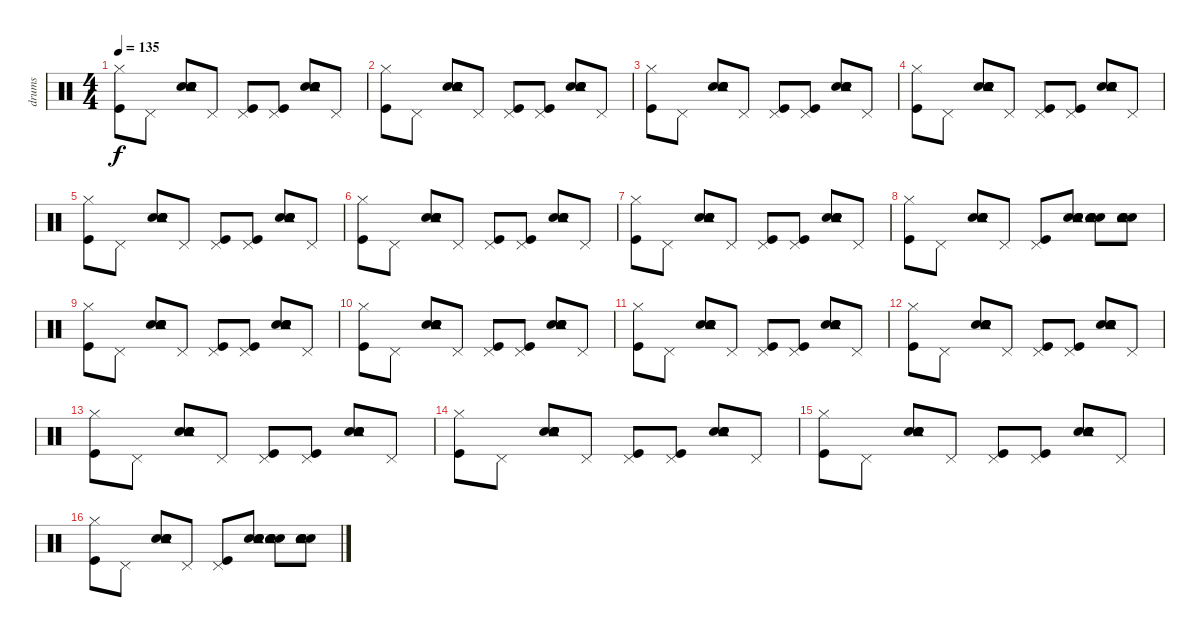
\track ("drums" "drums") {instrument percussion}
\staff {score}
\articulation defaults
\ts (4 4)
\tempo 135
\clef neutral
\ks c
("Kick (hit)" "Hi-Hat (closed)").8{dy f} "Pedal Hi-Hat (hit)".8 ("Snare (hit) 2" "Snare (hit) 2" "Electric Snare (hit)" "Electric Snare (hit)" "Tambourine (hit)").8 "Pedal Hi-Hat (hit)".8 ("Kick (hit)" "Pedal Hi-Hat (hit)").8 ("Kick (hit)" "Pedal Hi-Hat (hit)").8 ("Snare (hit) 2" "Snare (hit) 2" "Electric Snare (hit)" "Electric Snare (hit)" "Tambourine (hit)").8 "Pedal Hi-Hat (hit)".8 |
("Kick (hit)" "Hi-Hat (closed)").8 "Pedal Hi-Hat (hit)".8 ("Snare (hit) 2" "Snare (hit) 2" "Electric Snare (hit)" "Electric Snare (hit)" "Tambourine (hit)").8 "Pedal Hi-Hat (hit)".8 ("Kick (hit)" "Pedal Hi-Hat (hit)").8 ("Kick (hit)" "Pedal Hi-Hat (hit)").8 ("Snare (hit) 2" "Snare (hit) 2" "Electric Snare (hit)" "Electric Snare (hit)" "Tambourine (hit)").8 "Pedal Hi-Hat (hit)".8 |
("Kick (hit)" "Hi-Hat (closed)").8 "Pedal Hi-Hat (hit)".8 ("Snare (hit) 2" "Snare (hit) 2" "Electric Snare (hit)" "Electric Snare (hit)" "Tambourine (hit)").8 "Pedal Hi-Hat (hit)".8 ("Kick (hit)" "Pedal Hi-Hat (hit)").8 ("Kick (hit)" "Pedal Hi-Hat (hit)").8 ("Snare (hit) 2" "Snare (hit) 2" "Electric Snare (hit)" "Electric Snare (hit)" "Tambourine (hit)").8 "Pedal Hi-Hat (hit)".8 |
("Kick (hit)" "Hi-Hat (closed)").8 "Pedal Hi-Hat (hit)".8 ("Snare (hit) 2" "Snare (hit) 2" "Electric Snare (hit)" "Electric Snare (hit)" "Tambourine (hit)").8 "Pedal Hi-Hat (hit)".8 ("Kick (hit)" "Pedal Hi-Hat (hit)").8 ("Kick (hit)" "Pedal Hi-Hat (hit)").8 ("Snare (hit) 2" "Snare (hit) 2" "Electric Snare (hit)" "Electric Snare (hit)" "Tambourine (hit)").8 "Pedal Hi-Hat (hit)".8 |
("Kick (hit)" "Hi-Hat (closed)").8 "Pedal Hi-Hat (hit)".8 ("Snare (hit) 2" "Snare (hit) 2" "Electric Snare (hit)" "Electric Snare (hit)" "Tambourine (hit)").8 "Pedal Hi-Hat (hit)".8 ("Kick (hit)" "Pedal Hi-Hat (hit)").8 ("Kick (hit)" "Pedal Hi-Hat (hit)").8 ("Snare (hit) 2" "Snare (hit) 2" "Electric Snare (hit)" "Electric Snare (hit)" "Tambourine (hit)").8 "Pedal Hi-Hat (hit)".8 |
("Kick (hit)" "Hi-Hat (closed)").8 "Pedal Hi-Hat (hit)".8 ("Snare (hit) 2" "Snare (hit) 2" "Electric Snare (hit)" "Electric Snare (hit)" "Tambourine (hit)").8 "Pedal Hi-Hat (hit)".8 ("Kick (hit)" "Pedal Hi-Hat (hit)").8 ("Kick (hit)" "Pedal Hi-Hat (hit)").8 ("Snare (hit) 2" "Snare (hit) 2" "Electric Snare (hit)" "Electric Snare (hit)" "Tambourine (hit)").8 "Pedal Hi-Hat (hit)".8 |
("Kick (hit)" "Hi-Hat (closed)").8 "Pedal Hi-Hat (hit)".8 ("Snare (hit) 2" "Snare (hit) 2" "Electric Snare (hit)" "Electric Snare (hit)" "Tambourine (hit)").8 "Pedal Hi-Hat (hit)".8 ("Kick (hit)" "Pedal Hi-Hat (hit)").8 ("Kick (hit)" "Pedal Hi-Hat (hit)").8 ("Snare (hit) 2" "Snare (hit) 2" "Electric Snare (hit)" "Electric Snare (hit)" "Tambourine (hit)").8 "Pedal Hi-Hat (hit)".8 |
("Kick (hit)" "Hi-Hat (closed)").8 "Pedal Hi-Hat (hit)".8 ("Snare (hit) 2" "Snare (hit) 2" "Electric Snare (hit)" "Electric Snare (hit)" "Tambourine (hit)").8 "Pedal Hi-Hat (hit)".8 ("Kick (hit)" "Pedal Hi-Hat (hit)").8 ("Snare (hit) 2" "Snare (hit) 2" "Electric Snare (hit)" "Electric Snare (hit)" "Tambourine (hit)").8 ("Snare (hit) 2" "Snare (hit) 2" "Electric Snare (hit)" "Electric Snare (hit)" "Tambourine (hit)").8 ("Snare (hit) 2" "Snare (hit) 2" "Electric Snare (hit)" "Electric Snare (hit)" "Tambourine (hit)").8 |
("Kick (hit)" "Hi-Hat (closed)").8 "Pedal Hi-Hat (hit)".8 ("Snare (hit) 2" "Snare (hit) 2" "Electric Snare (hit)" "Electric Snare (hit)" "Tambourine (hit)").8 "Pedal Hi-Hat (hit)".8 ("Kick (hit)" "Pedal Hi-Hat (hit)").8 ("Kick (hit)" "Pedal Hi-Hat (hit)").8 ("Snare (hit) 2" "Snare (hit) 2" "Electric Snare (hit)" "Electric Snare (hit)" "Tambourine (hit)").8 "Pedal Hi-Hat (hit)".8 |
("Kick (hit)" "Hi-Hat (closed)").8 "Pedal Hi-Hat (hit)".8 ("Snare (hit) 2" "Snare (hit) 2" "Electric Snare (hit)" "Electric Snare (hit)" "Tambourine (hit)").8 "Pedal Hi-Hat (hit)".8 ("Kick (hit)" "Pedal Hi-Hat (hit)").8 ("Kick (hit)" "Pedal Hi-Hat (hit)").8 ("Snare (hit) 2" "Snare (hit) 2" "Electric Snare (hit)" "Electric Snare (hit)" "Tambourine (hit)").8 "Pedal Hi-Hat (hit)".8 |
("Kick (hit)" "Hi-Hat (closed)").8 "Pedal Hi-Hat (hit)".8 ("Snare (hit) 2" "Snare (hit) 2" "Electric Snare (hit)" "Electric Snare (hit)" "Tambourine (hit)").8 "Pedal Hi-Hat (hit)".8 ("Kick (hit)" "Pedal Hi-Hat (hit)").8 ("Kick (hit)" "Pedal Hi-Hat (hit)").8 ("Snare (hit) 2" "Snare (hit) 2" "Electric Snare (hit)" "Electric Snare (hit)" "Tambourine (hit)").8 "Pedal Hi-Hat (hit)".8 |
("Kick (hit)" "Hi-Hat (closed)").8 "Pedal Hi-Hat (hit)".8 ("Snare (hit) 2" "Snare (hit) 2" "Electric Snare (hit)" "Electric Snare (hit)" "Tambourine (hit)").8 "Pedal Hi-Hat (hit)".8 ("Kick (hit)" "Pedal Hi-Hat (hit)").8 ("Kick (hit)" "Pedal Hi-Hat (hit)").8 ("Snare (hit) 2" "Snare (hit) 2" "Electric Snare (hit)" "Electric Snare (hit)" "Tambourine (hit)").8 "Pedal Hi-Hat (hit)".8 |
("Kick (hit)" "Hi-Hat (closed)").8 "Pedal Hi-Hat (hit)".8 ("Snare (hit) 2" "Snare (hit) 2" "Electric Snare (hit)" "Electric Snare (hit)" "Tambourine (hit)").8 "Pedal Hi-Hat (hit)".8 ("Kick (hit)" "Pedal Hi-Hat (hit)").8 ("Kick (hit)" "Pedal Hi-Hat (hit)").8 ("Snare (hit) 2" "Snare (hit) 2" "Electric Snare (hit)" "Electric Snare (hit)" "Tambourine (hit)").8 "Pedal Hi-Hat (hit)".8 |
("Kick (hit)" "Hi-Hat (closed)").8 "Pedal Hi-Hat (hit)".8 ("Snare (hit) 2" "Snare (hit) 2" "Electric Snare (hit)" "Electric Snare (hit)" "Tambourine (hit)").8 "Pedal Hi-Hat (hit)".8 ("Kick (hit)" "Pedal Hi-Hat (hit)").8 ("Kick (hit)" "Pedal Hi-Hat (hit)").8 ("Snare (hit) 2" "Snare (hit) 2" "Electric Snare (hit)" "Electric Snare (hit)" "Tambourine (hit)").8 "Pedal Hi-Hat (hit)".8 |
("Kick (hit)" "Hi-Hat (closed)").8 "Pedal Hi-Hat (hit)".8 ("Snare (hit) 2" "Snare (hit) 2" "Electric Snare (hit)" "Electric Snare (hit)" "Tambourine (hit)").8 "Pedal Hi-Hat (hit)".8 ("Kick (hit)" "Pedal Hi-Hat (hit)").8 ("Kick (hit)" "Pedal Hi-Hat (hit)").8 ("Snare (hit) 2" "Snare (hit) 2" "Electric Snare (hit)" "Electric Snare (hit)" "Tambourine (hit)").8 "Pedal Hi-Hat (hit)".8 |
("Kick (hit)" "Hi-Hat (closed)").8 "Pedal Hi-Hat (hit)".8 ("Snare (hit) 2" "Snare (hit) 2" "Electric Snare (hit)" "Electric Snare (hit)" "Tambourine (hit)").8 "Pedal Hi-Hat (hit)".8 ("Kick (hit)" "Pedal Hi-Hat (hit)").8 ("Snare (hit) 2" "Snare (hit) 2" "Electric Snare (hit)" "Electric Snare (hit)" "Tambourine (hit)").8 ("Snare (hit) 2" "Snare (hit) 2" "Electric Snare (hit)" "Electric Snare (hit)" "Tambourine (hit)").8 ("Snare (hit) 2" "Snare (hit) 2" "Electric Snare (hit)" "Electric Snare (hit)" "Tambourine (hit)").8
